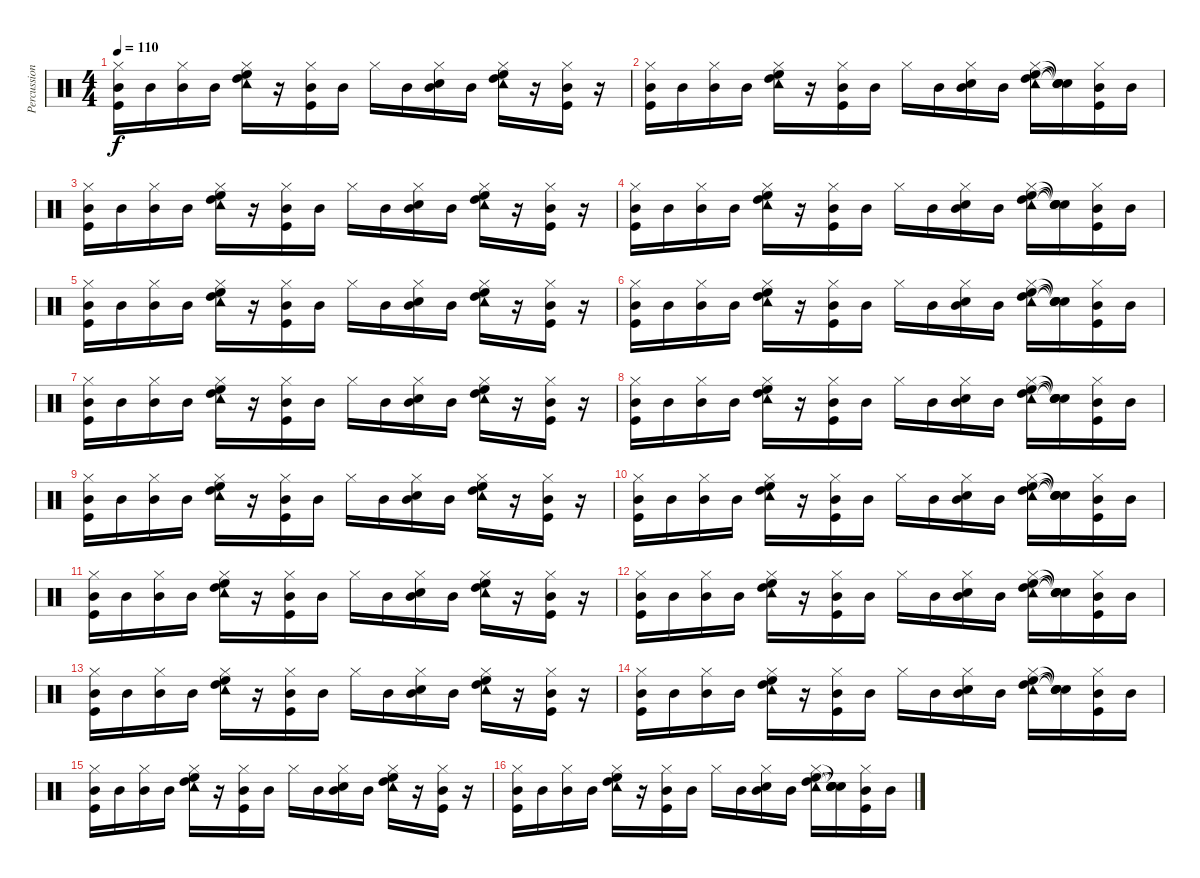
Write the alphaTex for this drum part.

\track ("Percussions" "Percussion") {instrument percussion}
\staff {score}
\articulation defaults
\ts (4 4)
\tempo 110
\clef neutral
\ks c
("Mid Tom (hit)" "Hi-Hat (closed)" "Kick (hit)").16{dy f} "Mid Tom (hit)".16 ("Mid Tom (hit)" "Hi-Hat (closed)").16 "Mid Tom (hit)".16 ("High Floor Tom (hit)" "High Tom (hit)" "Tambourine (hit)" "Hi-Hat (closed)").16 r.16 ("Mid Tom (hit)" "Hi-Hat (closed)" "Kick (hit)").16 "Mid Tom (hit)".16 "Hi-Hat (closed)".16 "Mid Tom (hit)".16 ("Mid Tom (hit)" "Electric Snare (hit)" "Hi-Hat (closed)").16 "Mid Tom (hit)".16 ("High Floor Tom (hit)" "High Tom (hit)" "Tambourine (hit)" "Hi-Hat (closed)").16 r.16 ("Mid Tom (hit)" "Hi-Hat (closed)" "Kick (hit)").16 r.16 |
("Mid Tom (hit)" "Hi-Hat (closed)" "Kick (hit)").16 "Mid Tom (hit)".16 ("Mid Tom (hit)" "Hi-Hat (closed)").16 "Mid Tom (hit)".16 ("High Floor Tom (hit)" "High Tom (hit)" "Tambourine (hit)" "Hi-Hat (closed)").16 r.16 ("Mid Tom (hit)" "Hi-Hat (closed)" "Kick (hit)").16 "Mid Tom (hit)".16 "Hi-Hat (closed)".16 "Mid Tom (hit)".16 ("Mid Tom (hit)" "Electric Snare (hit)" "Hi-Hat (closed)").16 "Mid Tom (hit)".16 ("High Floor Tom (hit)" "High Tom (hit)" "Tambourine (hit)" "Hi-Hat (closed)").16 ("Snare (hit)"{t} "Snare (hit)"{t} "Snare (hit)"{t} "Snare (hit)"{t}).16 ("Mid Tom (hit)" "Hi-Hat (closed)" "Kick (hit)").16 "Mid Tom (hit)".16 |
("Mid Tom (hit)" "Hi-Hat (closed)" "Kick (hit)").16 "Mid Tom (hit)".16 ("Mid Tom (hit)" "Hi-Hat (closed)").16 "Mid Tom (hit)".16 ("High Floor Tom (hit)" "High Tom (hit)" "Tambourine (hit)" "Hi-Hat (closed)").16 r.16 ("Mid Tom (hit)" "Hi-Hat (closed)" "Kick (hit)").16 "Mid Tom (hit)".16 "Hi-Hat (closed)".16 "Mid Tom (hit)".16 ("Mid Tom (hit)" "Electric Snare (hit)" "Hi-Hat (closed)").16 "Mid Tom (hit)".16 ("High Floor Tom (hit)" "High Tom (hit)" "Tambourine (hit)" "Hi-Hat (closed)").16 r.16 ("Mid Tom (hit)" "Hi-Hat (closed)" "Kick (hit)").16 r.16 |
("Mid Tom (hit)" "Hi-Hat (closed)" "Kick (hit)").16 "Mid Tom (hit)".16 ("Mid Tom (hit)" "Hi-Hat (closed)").16 "Mid Tom (hit)".16 ("High Floor Tom (hit)" "High Tom (hit)" "Tambourine (hit)" "Hi-Hat (closed)").16 r.16 ("Mid Tom (hit)" "Hi-Hat (closed)" "Kick (hit)").16 "Mid Tom (hit)".16 "Hi-Hat (closed)".16 "Mid Tom (hit)".16 ("Mid Tom (hit)" "Electric Snare (hit)" "Hi-Hat (closed)").16 "Mid Tom (hit)".16 ("High Floor Tom (hit)" "High Tom (hit)" "Tambourine (hit)" "Hi-Hat (closed)").16 ("Snare (hit)"{t} "Snare (hit)"{t} "Snare (hit)"{t} "Snare (hit)"{t}).16 ("Mid Tom (hit)" "Hi-Hat (closed)" "Kick (hit)").16 "Mid Tom (hit)".16 |
("Mid Tom (hit)" "Hi-Hat (closed)" "Kick (hit)").16 "Mid Tom (hit)".16 ("Mid Tom (hit)" "Hi-Hat (closed)").16 "Mid Tom (hit)".16 ("High Floor Tom (hit)" "High Tom (hit)" "Tambourine (hit)" "Hi-Hat (closed)").16 r.16 ("Mid Tom (hit)" "Hi-Hat (closed)" "Kick (hit)").16 "Mid Tom (hit)".16 "Hi-Hat (closed)".16 "Mid Tom (hit)".16 ("Mid Tom (hit)" "Electric Snare (hit)" "Hi-Hat (closed)").16 "Mid Tom (hit)".16 ("High Floor Tom (hit)" "High Tom (hit)" "Tambourine (hit)" "Hi-Hat (closed)").16 r.16 ("Mid Tom (hit)" "Hi-Hat (closed)" "Kick (hit)").16 r.16 |
("Mid Tom (hit)" "Hi-Hat (closed)" "Kick (hit)").16 "Mid Tom (hit)".16 ("Mid Tom (hit)" "Hi-Hat (closed)").16 "Mid Tom (hit)".16 ("High Floor Tom (hit)" "High Tom (hit)" "Tambourine (hit)" "Hi-Hat (closed)").16 r.16 ("Mid Tom (hit)" "Hi-Hat (closed)" "Kick (hit)").16 "Mid Tom (hit)".16 "Hi-Hat (closed)".16 "Mid Tom (hit)".16 ("Mid Tom (hit)" "Electric Snare (hit)" "Hi-Hat (closed)").16 "Mid Tom (hit)".16 ("High Floor Tom (hit)" "High Tom (hit)" "Tambourine (hit)" "Hi-Hat (closed)").16 ("Snare (hit)"{t} "Snare (hit)"{t} "Snare (hit)"{t} "Snare (hit)"{t}).16 ("Mid Tom (hit)" "Hi-Hat (closed)" "Kick (hit)").16 "Mid Tom (hit)".16 |
("Mid Tom (hit)" "Hi-Hat (closed)" "Kick (hit)").16 "Mid Tom (hit)".16 ("Mid Tom (hit)" "Hi-Hat (closed)").16 "Mid Tom (hit)".16 ("High Floor Tom (hit)" "High Tom (hit)" "Tambourine (hit)" "Hi-Hat (closed)").16 r.16 ("Mid Tom (hit)" "Hi-Hat (closed)" "Kick (hit)").16 "Mid Tom (hit)".16 "Hi-Hat (closed)".16 "Mid Tom (hit)".16 ("Mid Tom (hit)" "Electric Snare (hit)" "Hi-Hat (closed)").16 "Mid Tom (hit)".16 ("High Floor Tom (hit)" "High Tom (hit)" "Tambourine (hit)" "Hi-Hat (closed)").16 r.16 ("Mid Tom (hit)" "Hi-Hat (closed)" "Kick (hit)").16 r.16 |
("Mid Tom (hit)" "Hi-Hat (closed)" "Kick (hit)").16 "Mid Tom (hit)".16 ("Mid Tom (hit)" "Hi-Hat (closed)").16 "Mid Tom (hit)".16 ("High Floor Tom (hit)" "High Tom (hit)" "Tambourine (hit)" "Hi-Hat (closed)").16 r.16 ("Mid Tom (hit)" "Hi-Hat (closed)" "Kick (hit)").16 "Mid Tom (hit)".16 "Hi-Hat (closed)".16 "Mid Tom (hit)".16 ("Mid Tom (hit)" "Electric Snare (hit)" "Hi-Hat (closed)").16 "Mid Tom (hit)".16 ("High Floor Tom (hit)" "High Tom (hit)" "Tambourine (hit)" "Hi-Hat (closed)").16 ("Snare (hit)"{t} "Snare (hit)"{t} "Snare (hit)"{t} "Snare (hit)"{t}).16 ("Mid Tom (hit)" "Hi-Hat (closed)" "Kick (hit)").16 "Mid Tom (hit)".16 |
("Mid Tom (hit)" "Hi-Hat (closed)" "Kick (hit)").16 "Mid Tom (hit)".16 ("Mid Tom (hit)" "Hi-Hat (closed)").16 "Mid Tom (hit)".16 ("High Floor Tom (hit)" "High Tom (hit)" "Tambourine (hit)" "Hi-Hat (closed)").16 r.16 ("Mid Tom (hit)" "Hi-Hat (closed)" "Kick (hit)").16 "Mid Tom (hit)".16 "Hi-Hat (closed)".16 "Mid Tom (hit)".16 ("Mid Tom (hit)" "Electric Snare (hit)" "Hi-Hat (closed)").16 "Mid Tom (hit)".16 ("High Floor Tom (hit)" "High Tom (hit)" "Tambourine (hit)" "Hi-Hat (closed)").16 r.16 ("Mid Tom (hit)" "Hi-Hat (closed)" "Kick (hit)").16 r.16 |
("Mid Tom (hit)" "Hi-Hat (closed)" "Kick (hit)").16 "Mid Tom (hit)".16 ("Mid Tom (hit)" "Hi-Hat (closed)").16 "Mid Tom (hit)".16 ("High Floor Tom (hit)" "High Tom (hit)" "Tambourine (hit)" "Hi-Hat (closed)").16 r.16 ("Mid Tom (hit)" "Hi-Hat (closed)" "Kick (hit)").16 "Mid Tom (hit)".16 "Hi-Hat (closed)".16 "Mid Tom (hit)".16 ("Mid Tom (hit)" "Electric Snare (hit)" "Hi-Hat (closed)").16 "Mid Tom (hit)".16 ("High Floor Tom (hit)" "High Tom (hit)" "Tambourine (hit)" "Hi-Hat (closed)").16 ("Snare (hit)"{t} "Snare (hit)"{t} "Snare (hit)"{t} "Snare (hit)"{t}).16 ("Mid Tom (hit)" "Hi-Hat (closed)" "Kick (hit)").16 "Mid Tom (hit)".16 |
("Mid Tom (hit)" "Hi-Hat (closed)" "Kick (hit)").16 "Mid Tom (hit)".16 ("Mid Tom (hit)" "Hi-Hat (closed)").16 "Mid Tom (hit)".16 ("High Floor Tom (hit)" "High Tom (hit)" "Tambourine (hit)" "Hi-Hat (closed)").16 r.16 ("Mid Tom (hit)" "Hi-Hat (closed)" "Kick (hit)").16 "Mid Tom (hit)".16 "Hi-Hat (closed)".16 "Mid Tom (hit)".16 ("Mid Tom (hit)" "Electric Snare (hit)" "Hi-Hat (closed)").16 "Mid Tom (hit)".16 ("High Floor Tom (hit)" "High Tom (hit)" "Tambourine (hit)" "Hi-Hat (closed)").16 r.16 ("Mid Tom (hit)" "Hi-Hat (closed)" "Kick (hit)").16 r.16 |
("Mid Tom (hit)" "Hi-Hat (closed)" "Kick (hit)").16 "Mid Tom (hit)".16 ("Mid Tom (hit)" "Hi-Hat (closed)").16 "Mid Tom (hit)".16 ("High Floor Tom (hit)" "High Tom (hit)" "Tambourine (hit)" "Hi-Hat (closed)").16 r.16 ("Mid Tom (hit)" "Hi-Hat (closed)" "Kick (hit)").16 "Mid Tom (hit)".16 "Hi-Hat (closed)".16 "Mid Tom (hit)".16 ("Mid Tom (hit)" "Electric Snare (hit)" "Hi-Hat (closed)").16 "Mid Tom (hit)".16 ("High Floor Tom (hit)" "High Tom (hit)" "Tambourine (hit)" "Hi-Hat (closed)").16 ("Snare (hit)"{t} "Snare (hit)"{t} "Snare (hit)"{t} "Snare (hit)"{t}).16 ("Mid Tom (hit)" "Hi-Hat (closed)" "Kick (hit)").16 "Mid Tom (hit)".16 |
("Mid Tom (hit)" "Hi-Hat (closed)" "Kick (hit)").16 "Mid Tom (hit)".16 ("Mid Tom (hit)" "Hi-Hat (closed)").16 "Mid Tom (hit)".16 ("High Floor Tom (hit)" "High Tom (hit)" "Tambourine (hit)" "Hi-Hat (closed)").16 r.16 ("Mid Tom (hit)" "Hi-Hat (closed)" "Kick (hit)").16 "Mid Tom (hit)".16 "Hi-Hat (closed)".16 "Mid Tom (hit)".16 ("Mid Tom (hit)" "Electric Snare (hit)" "Hi-Hat (closed)").16 "Mid Tom (hit)".16 ("High Floor Tom (hit)" "High Tom (hit)" "Tambourine (hit)" "Hi-Hat (closed)").16 r.16 ("Mid Tom (hit)" "Hi-Hat (closed)" "Kick (hit)").16 r.16 |
("Mid Tom (hit)" "Hi-Hat (closed)" "Kick (hit)").16 "Mid Tom (hit)".16 ("Mid Tom (hit)" "Hi-Hat (closed)").16 "Mid Tom (hit)".16 ("High Floor Tom (hit)" "High Tom (hit)" "Tambourine (hit)" "Hi-Hat (closed)").16 r.16 ("Mid Tom (hit)" "Hi-Hat (closed)" "Kick (hit)").16 "Mid Tom (hit)".16 "Hi-Hat (closed)".16 "Mid Tom (hit)".16 ("Mid Tom (hit)" "Electric Snare (hit)" "Hi-Hat (closed)").16 "Mid Tom (hit)".16 ("High Floor Tom (hit)" "High Tom (hit)" "Tambourine (hit)" "Hi-Hat (closed)").16 ("Snare (hit)"{t} "Snare (hit)"{t} "Snare (hit)"{t} "Snare (hit)"{t}).16 ("Mid Tom (hit)" "Hi-Hat (closed)" "Kick (hit)").16 "Mid Tom (hit)".16 |
("Mid Tom (hit)" "Hi-Hat (closed)" "Kick (hit)").16 "Mid Tom (hit)".16 ("Mid Tom (hit)" "Hi-Hat (closed)").16 "Mid Tom (hit)".16 ("High Floor Tom (hit)" "High Tom (hit)" "Tambourine (hit)" "Hi-Hat (closed)").16 r.16 ("Mid Tom (hit)" "Hi-Hat (closed)" "Kick (hit)").16 "Mid Tom (hit)".16 "Hi-Hat (closed)".16 "Mid Tom (hit)".16 ("Mid Tom (hit)" "Electric Snare (hit)" "Hi-Hat (closed)").16 "Mid Tom (hit)".16 ("High Floor Tom (hit)" "High Tom (hit)" "Tambourine (hit)" "Hi-Hat (closed)").16 r.16 ("Mid Tom (hit)" "Hi-Hat (closed)" "Kick (hit)").16 r.16 |
("Mid Tom (hit)" "Hi-Hat (closed)" "Kick (hit)").16 "Mid Tom (hit)".16 ("Mid Tom (hit)" "Hi-Hat (closed)").16 "Mid Tom (hit)".16 ("High Floor Tom (hit)" "High Tom (hit)" "Tambourine (hit)" "Hi-Hat (closed)").16 r.16 ("Mid Tom (hit)" "Hi-Hat (closed)" "Kick (hit)").16 "Mid Tom (hit)".16 "Hi-Hat (closed)".16 "Mid Tom (hit)".16 ("Mid Tom (hit)" "Electric Snare (hit)" "Hi-Hat (closed)").16 "Mid Tom (hit)".16 ("High Floor Tom (hit)" "High Tom (hit)" "Tambourine (hit)" "Hi-Hat (closed)").16 ("Snare (hit)"{t} "Snare (hit)"{t} "Snare (hit)"{t} "Snare (hit)"{t}).16 ("Mid Tom (hit)" "Hi-Hat (closed)" "Kick (hit)").16 "Mid Tom (hit)".16
